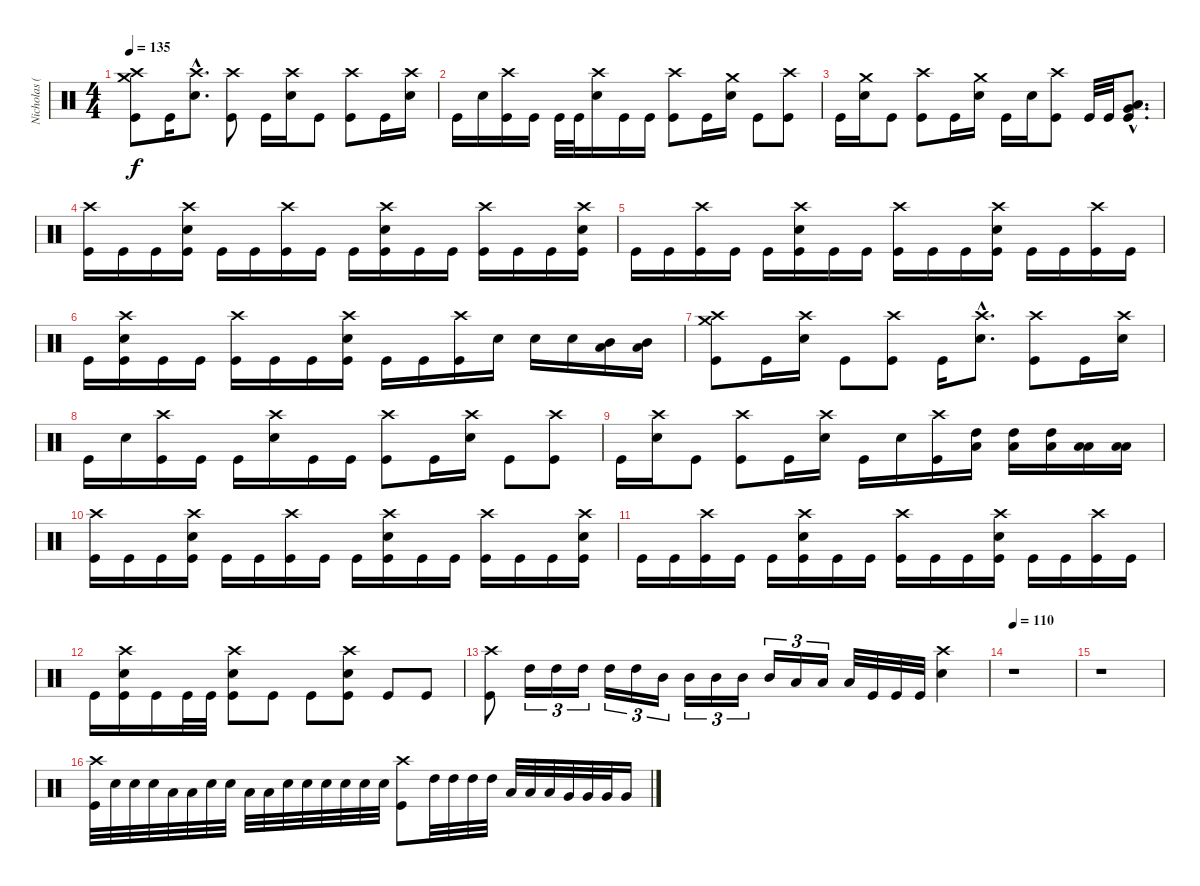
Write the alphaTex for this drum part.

\track ("Nicholas (Drums)" "Nicholas (") {instrument percussion}
\staff {score}
\articulation defaults
\ts (4 4)
\tempo 135
\clef neutral
\ks c
("Crash medium (hit)" "Crash high (hit)" "Kick (hit)").8{dy f} "Kick (hit)".16 ("Crash high (hit)"{hac} "Electric Snare (hit)"{hac}).8{d} ("Crash high (hit)" "Kick (hit)").8 "Kick (hit)".16 ("Crash high (hit)" "Electric Snare (hit)").16 "Kick (hit)".8 ("Crash high (hit)" "Kick (hit)").8 "Kick (hit)".16 ("Crash high (hit)" "Electric Snare (hit)").16 |
"Kick (hit)".16 "Electric Snare (hit)".16 ("Crash high (hit)" "Kick (hit)").16 "Kick (hit)".16 "Kick (hit)".32 "Kick (hit)".32 ("Crash high (hit)" "Electric Snare (hit)").16 "Kick (hit)".16 "Kick (hit)".16 ("Crash high (hit)" "Kick (hit)").8 "Kick (hit)".16 ("Crash medium (hit)" "Electric Snare (hit)").16 "Kick (hit)".8 ("Crash high (hit)" "Kick (hit)").8 |
"Kick (hit)".16 ("Crash medium (hit)" "Electric Snare (hit)").16 "Kick (hit)".8 ("Crash high (hit)" "Kick (hit)").8 "Kick (hit)".16 ("Crash medium (hit)" "Electric Snare (hit)").16 "Kick (hit)".16 "Electric Snare (hit)".16 ("Crash high (hit)" "Kick (hit)").8 "Kick (hit)".32 "Kick (hit)".32 ("Low Tom (hit)"{hac} "Very Low Tom (hit)"{hac} "Kick (hit)"{hac}).8{d} |
("Crash high (hit)" "Kick (hit)").16 "Kick (hit)".16 "Kick (hit)".16 ("Crash high (hit)" "Electric Snare (hit)" "Kick (hit)").16 "Kick (hit)".16 "Kick (hit)".16 ("Crash high (hit)" "Kick (hit)").16 "Kick (hit)".16 "Kick (hit)".16 ("Crash high (hit)" "Electric Snare (hit)" "Kick (hit)").16 "Kick (hit)".16 "Kick (hit)".16 ("Crash high (hit)" "Kick (hit)").16 "Kick (hit)".16 "Kick (hit)".16 ("Crash high (hit)" "Electric Snare (hit)" "Kick (hit)").16 |
"Kick (hit)".16 "Kick (hit)".16 ("Crash high (hit)" "Kick (hit)").16 "Kick (hit)".16 "Kick (hit)".16 ("Crash high (hit)" "Electric Snare (hit)" "Kick (hit)").16 "Kick (hit)".16 "Kick (hit)".16 ("Crash high (hit)" "Kick (hit)").16 "Kick (hit)".16 "Kick (hit)".16 ("Crash high (hit)" "Electric Snare (hit)" "Kick (hit)").16 "Kick (hit)".16 "Kick (hit)".16 ("Crash high (hit)" "Kick (hit)").16 "Kick (hit)".16 |
"Kick (hit)".16 ("Crash high (hit)" "Electric Snare (hit)" "Kick (hit)").16 "Kick (hit)".16 "Kick (hit)".16 ("Crash high (hit)" "Kick (hit)").16 "Kick (hit)".16 "Kick (hit)".16 ("Crash high (hit)" "Electric Snare (hit)" "Kick (hit)").16 "Kick (hit)".16 "Kick (hit)".16 ("Crash high (hit)" "Kick (hit)").16 "Electric Snare (hit)".16 "Electric Snare (hit)".16 "Electric Snare (hit)".16 ("Mid Tom (hit)" "Low Tom (hit)").16 ("Mid Tom (hit)" "Low Tom (hit)").16 |
("Crash medium (hit)" "Crash high (hit)" "Kick (hit)").8 "Kick (hit)".16 ("Crash high (hit)" "Electric Snare (hit)").16 "Kick (hit)".8 ("Crash high (hit)" "Kick (hit)").8 "Kick (hit)".16 ("Crash high (hit)"{hac} "Electric Snare (hit)"{hac}).8{d} ("Crash high (hit)" "Kick (hit)").8 "Kick (hit)".16 ("Crash high (hit)" "Electric Snare (hit)").16 |
"Kick (hit)".16 "Electric Snare (hit)".16 ("Crash high (hit)" "Kick (hit)").16 "Kick (hit)".16 "Kick (hit)".16 ("Crash high (hit)" "Electric Snare (hit)").16 "Kick (hit)".16 "Kick (hit)".16 ("Crash high (hit)" "Kick (hit)").8 "Kick (hit)".16 ("Crash high (hit)" "Electric Snare (hit)").16 "Kick (hit)".8 ("Crash high (hit)" "Kick (hit)").8 |
"Kick (hit)".16 ("Crash high (hit)" "Electric Snare (hit)").16 "Kick (hit)".8 ("Crash high (hit)" "Kick (hit)").8 "Kick (hit)".16 ("Crash high (hit)" "Electric Snare (hit)").16 "Kick (hit)".16 "Electric Snare (hit)".16 ("Crash high (hit)" "Kick (hit)").16 ("High Tom (hit)" "Low Floor Tom (hit)").16 ("High Tom (hit)" "Low Floor Tom (hit)").16 ("High Tom (hit)" "Low Floor Tom (hit)").16 ("Low Tom (hit)" "Low Floor Tom (hit)").16 ("Low Tom (hit)" "Low Floor Tom (hit)").16 |
("Crash high (hit)" "Kick (hit)").16 "Kick (hit)".16 "Kick (hit)".16 ("Crash high (hit)" "Electric Snare (hit)" "Kick (hit)").16 "Kick (hit)".16 "Kick (hit)".16 ("Crash high (hit)" "Kick (hit)").16 "Kick (hit)".16 "Kick (hit)".16 ("Crash high (hit)" "Electric Snare (hit)" "Kick (hit)").16 "Kick (hit)".16 "Kick (hit)".16 ("Crash high (hit)" "Kick (hit)").16 "Kick (hit)".16 "Kick (hit)".16 ("Crash high (hit)" "Electric Snare (hit)" "Kick (hit)").16 |
"Kick (hit)".16 "Kick (hit)".16 ("Crash high (hit)" "Kick (hit)").16 "Kick (hit)".16 "Kick (hit)".16 ("Crash high (hit)" "Electric Snare (hit)" "Kick (hit)").16 "Kick (hit)".16 "Kick (hit)".16 ("Crash high (hit)" "Kick (hit)").16 "Kick (hit)".16 "Kick (hit)".16 ("Crash high (hit)" "Electric Snare (hit)" "Kick (hit)").16 "Kick (hit)".16 "Kick (hit)".16 ("Crash high (hit)" "Kick (hit)").16 "Kick (hit)".16 |
"Kick (hit)".16 ("Crash high (hit)" "Electric Snare (hit)" "Kick (hit)").16 "Kick (hit)".16 "Kick (hit)".32 "Kick (hit)".32 ("Crash high (hit)" "Electric Snare (hit)" "Kick (hit)").8 "Kick (hit)".8 "Kick (hit)".8 ("Crash high (hit)" "Electric Snare (hit)" "Kick (hit)").8 "Kick (hit)".8 "Kick (hit)".8 |
("Crash high (hit)" "Kick (hit)").8 "High Tom (hit)".16{tu (3 2)} "High Tom (hit)".16{tu (3 2)} "High Tom (hit)".16{tu (3 2)} "High Tom (hit)".16{tu (3 2)} "High Tom (hit)".16{tu (3 2)} "Mid Tom (hit)".16{tu (3 2)} "Mid Tom (hit)".16{tu (3 2)} "Mid Tom (hit)".16{tu (3 2)} "Mid Tom (hit)".16{tu (3 2)} "Mid Tom (hit)".16{tu (3 2)} "Low Tom (hit)".16{tu (3 2)} "Low Tom (hit)".16{tu (3 2)} "Low Tom (hit)".32 "Kick (hit)".32 "Kick (hit)".32 "Kick (hit)".32 ("Crash high (hit)" "Electric Snare (hit)").4 |
\tempo 110
r.1 |
r.1 |
("Crash high (hit)" "Kick (hit)").32 "Electric Snare (hit)".32 "Electric Snare (hit)".32 "Electric Snare (hit)".32 "Low Tom (hit)".32 "Low Tom (hit)".32 "Electric Snare (hit)".32 "Electric Snare (hit)".32 "Low Tom (hit)".32 "Low Tom (hit)".32 "Electric Snare (hit)".32 "Electric Snare (hit)".32 "Electric Snare (hit)".32 "Electric Snare (hit)".32 "Electric Snare (hit)".32 "Electric Snare (hit)".32 ("Crash high (hit)" "Kick (hit)").8 "High Tom (hit)".32 "High Tom (hit)".32 "High Tom (hit)".32 "High Tom (hit)".32 "Low Tom (hit)".32 "Low Tom (hit)".32 "Low Tom (hit)".32 "Very Low Tom (hit)".32 "Very Low Tom (hit)".32 "Very Low Tom (hit)".32 "Very Low Tom (hit)".16
